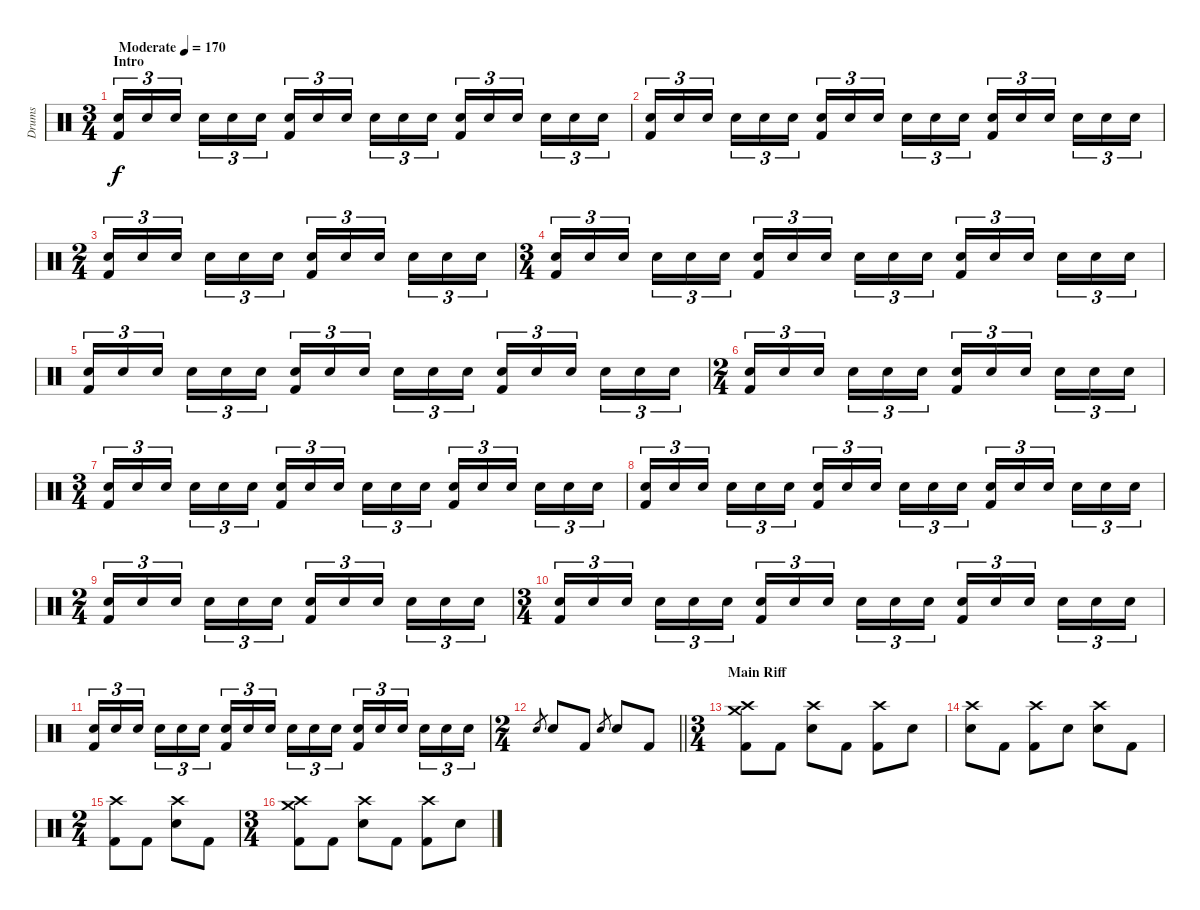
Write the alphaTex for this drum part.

\track ("Drums" "Drums") {instrument percussion}
\staff {score}
\articulation defaults
\ts (3 4)
\section ("" "Intro")
\tempo (170 "Moderate")
\clef neutral
\ks c
("Electric Snare (hit)" "Kick (hit) 2").16{tu (3 2) dy f volume 7} "Electric Snare (hit)".16{tu (3 2)} "Electric Snare (hit)".16{tu (3 2) beam splitsecondary} "Electric Snare (hit)".16{tu (3 2)} "Electric Snare (hit)".16{tu (3 2)} "Electric Snare (hit)".16{tu (3 2)} ("Electric Snare (hit)" "Kick (hit) 2").16{tu (3 2)} "Electric Snare (hit)".16{tu (3 2)} "Electric Snare (hit)".16{tu (3 2) beam splitsecondary} "Electric Snare (hit)".16{tu (3 2)} "Electric Snare (hit)".16{tu (3 2)} "Electric Snare (hit)".16{tu (3 2)} ("Electric Snare (hit)" "Kick (hit) 2").16{tu (3 2)} "Electric Snare (hit)".16{tu (3 2)} "Electric Snare (hit)".16{tu (3 2) beam splitsecondary} "Electric Snare (hit)".16{tu (3 2)} "Electric Snare (hit)".16{tu (3 2)} "Electric Snare (hit)".16{tu (3 2)} |
("Electric Snare (hit)" "Kick (hit) 2").16{tu (3 2)} "Electric Snare (hit)".16{tu (3 2)} "Electric Snare (hit)".16{tu (3 2) beam splitsecondary} "Electric Snare (hit)".16{tu (3 2)} "Electric Snare (hit)".16{tu (3 2)} "Electric Snare (hit)".16{tu (3 2)} ("Electric Snare (hit)" "Kick (hit) 2").16{tu (3 2)} "Electric Snare (hit)".16{tu (3 2)} "Electric Snare (hit)".16{tu (3 2) beam splitsecondary} "Electric Snare (hit)".16{tu (3 2)} "Electric Snare (hit)".16{tu (3 2)} "Electric Snare (hit)".16{tu (3 2)} ("Electric Snare (hit)" "Kick (hit) 2").16{tu (3 2)} "Electric Snare (hit)".16{tu (3 2)} "Electric Snare (hit)".16{tu (3 2) beam splitsecondary} "Electric Snare (hit)".16{tu (3 2)} "Electric Snare (hit)".16{tu (3 2)} "Electric Snare (hit)".16{tu (3 2)} |
\ts (2 4)
("Electric Snare (hit)" "Kick (hit) 2").16{tu (3 2)} "Electric Snare (hit)".16{tu (3 2)} "Electric Snare (hit)".16{tu (3 2) beam splitsecondary} "Electric Snare (hit)".16{tu (3 2)} "Electric Snare (hit)".16{tu (3 2)} "Electric Snare (hit)".16{tu (3 2)} ("Electric Snare (hit)" "Kick (hit) 2").16{tu (3 2)} "Electric Snare (hit)".16{tu (3 2)} "Electric Snare (hit)".16{tu (3 2) beam splitsecondary} "Electric Snare (hit)".16{tu (3 2)} "Electric Snare (hit)".16{tu (3 2)} "Electric Snare (hit)".16{tu (3 2)} |
\ts (3 4)
("Electric Snare (hit)" "Kick (hit) 2").16{tu (3 2)} "Electric Snare (hit)".16{tu (3 2)} "Electric Snare (hit)".16{tu (3 2) beam splitsecondary} "Electric Snare (hit)".16{tu (3 2)} "Electric Snare (hit)".16{tu (3 2)} "Electric Snare (hit)".16{tu (3 2)} ("Electric Snare (hit)" "Kick (hit) 2").16{tu (3 2)} "Electric Snare (hit)".16{tu (3 2)} "Electric Snare (hit)".16{tu (3 2) beam splitsecondary} "Electric Snare (hit)".16{tu (3 2)} "Electric Snare (hit)".16{tu (3 2)} "Electric Snare (hit)".16{tu (3 2)} ("Electric Snare (hit)" "Kick (hit) 2").16{tu (3 2)} "Electric Snare (hit)".16{tu (3 2)} "Electric Snare (hit)".16{tu (3 2) beam splitsecondary} "Electric Snare (hit)".16{tu (3 2)} "Electric Snare (hit)".16{tu (3 2)} "Electric Snare (hit)".16{tu (3 2)} |
("Electric Snare (hit)" "Kick (hit) 2").16{tu (3 2)} "Electric Snare (hit)".16{tu (3 2)} "Electric Snare (hit)".16{tu (3 2) beam splitsecondary} "Electric Snare (hit)".16{tu (3 2)} "Electric Snare (hit)".16{tu (3 2)} "Electric Snare (hit)".16{tu (3 2)} ("Electric Snare (hit)" "Kick (hit) 2").16{tu (3 2)} "Electric Snare (hit)".16{tu (3 2)} "Electric Snare (hit)".16{tu (3 2) beam splitsecondary} "Electric Snare (hit)".16{tu (3 2)} "Electric Snare (hit)".16{tu (3 2)} "Electric Snare (hit)".16{tu (3 2)} ("Electric Snare (hit)" "Kick (hit) 2").16{tu (3 2)} "Electric Snare (hit)".16{tu (3 2)} "Electric Snare (hit)".16{tu (3 2) beam splitsecondary} "Electric Snare (hit)".16{tu (3 2)} "Electric Snare (hit)".16{tu (3 2)} "Electric Snare (hit)".16{tu (3 2)} |
\ts (2 4)
("Electric Snare (hit)" "Kick (hit) 2").16{tu (3 2)} "Electric Snare (hit)".16{tu (3 2)} "Electric Snare (hit)".16{tu (3 2) beam splitsecondary} "Electric Snare (hit)".16{tu (3 2)} "Electric Snare (hit)".16{tu (3 2)} "Electric Snare (hit)".16{tu (3 2)} ("Electric Snare (hit)" "Kick (hit) 2").16{tu (3 2)} "Electric Snare (hit)".16{tu (3 2)} "Electric Snare (hit)".16{tu (3 2) beam splitsecondary} "Electric Snare (hit)".16{tu (3 2)} "Electric Snare (hit)".16{tu (3 2)} "Electric Snare (hit)".16{tu (3 2)} |
\ts (3 4)
("Electric Snare (hit)" "Kick (hit) 2").16{tu (3 2)} "Electric Snare (hit)".16{tu (3 2)} "Electric Snare (hit)".16{tu (3 2) beam splitsecondary} "Electric Snare (hit)".16{tu (3 2)} "Electric Snare (hit)".16{tu (3 2)} "Electric Snare (hit)".16{tu (3 2)} ("Electric Snare (hit)" "Kick (hit) 2").16{tu (3 2)} "Electric Snare (hit)".16{tu (3 2)} "Electric Snare (hit)".16{tu (3 2) beam splitsecondary} "Electric Snare (hit)".16{tu (3 2)} "Electric Snare (hit)".16{tu (3 2)} "Electric Snare (hit)".16{tu (3 2)} ("Electric Snare (hit)" "Kick (hit) 2").16{tu (3 2)} "Electric Snare (hit)".16{tu (3 2)} "Electric Snare (hit)".16{tu (3 2) beam splitsecondary} "Electric Snare (hit)".16{tu (3 2)} "Electric Snare (hit)".16{tu (3 2)} "Electric Snare (hit)".16{tu (3 2)} |
("Electric Snare (hit)" "Kick (hit) 2").16{tu (3 2)} "Electric Snare (hit)".16{tu (3 2)} "Electric Snare (hit)".16{tu (3 2) beam splitsecondary} "Electric Snare (hit)".16{tu (3 2)} "Electric Snare (hit)".16{tu (3 2)} "Electric Snare (hit)".16{tu (3 2)} ("Electric Snare (hit)" "Kick (hit) 2").16{tu (3 2)} "Electric Snare (hit)".16{tu (3 2)} "Electric Snare (hit)".16{tu (3 2) beam splitsecondary} "Electric Snare (hit)".16{tu (3 2)} "Electric Snare (hit)".16{tu (3 2)} "Electric Snare (hit)".16{tu (3 2)} ("Electric Snare (hit)" "Kick (hit) 2").16{tu (3 2)} "Electric Snare (hit)".16{tu (3 2)} "Electric Snare (hit)".16{tu (3 2) beam splitsecondary} "Electric Snare (hit)".16{tu (3 2)} "Electric Snare (hit)".16{tu (3 2)} "Electric Snare (hit)".16{tu (3 2)} |
\ts (2 4)
("Electric Snare (hit)" "Kick (hit) 2").16{tu (3 2)} "Electric Snare (hit)".16{tu (3 2)} "Electric Snare (hit)".16{tu (3 2) beam splitsecondary} "Electric Snare (hit)".16{tu (3 2)} "Electric Snare (hit)".16{tu (3 2)} "Electric Snare (hit)".16{tu (3 2)} ("Electric Snare (hit)" "Kick (hit) 2").16{tu (3 2)} "Electric Snare (hit)".16{tu (3 2)} "Electric Snare (hit)".16{tu (3 2) beam splitsecondary} "Electric Snare (hit)".16{tu (3 2)} "Electric Snare (hit)".16{tu (3 2)} "Electric Snare (hit)".16{tu (3 2)} |
\ts (3 4)
("Electric Snare (hit)" "Kick (hit) 2").16{tu (3 2)} "Electric Snare (hit)".16{tu (3 2)} "Electric Snare (hit)".16{tu (3 2) beam splitsecondary} "Electric Snare (hit)".16{tu (3 2)} "Electric Snare (hit)".16{tu (3 2)} "Electric Snare (hit)".16{tu (3 2)} ("Electric Snare (hit)" "Kick (hit) 2").16{tu (3 2)} "Electric Snare (hit)".16{tu (3 2)} "Electric Snare (hit)".16{tu (3 2) beam splitsecondary} "Electric Snare (hit)".16{tu (3 2)} "Electric Snare (hit)".16{tu (3 2)} "Electric Snare (hit)".16{tu (3 2)} ("Electric Snare (hit)" "Kick (hit) 2").16{tu (3 2)} "Electric Snare (hit)".16{tu (3 2)} "Electric Snare (hit)".16{tu (3 2) beam splitsecondary} "Electric Snare (hit)".16{tu (3 2)} "Electric Snare (hit)".16{tu (3 2)} "Electric Snare (hit)".16{tu (3 2)} |
("Electric Snare (hit)" "Kick (hit) 2").16{tu (3 2)} "Electric Snare (hit)".16{tu (3 2)} "Electric Snare (hit)".16{tu (3 2) beam splitsecondary} "Electric Snare (hit)".16{tu (3 2)} "Electric Snare (hit)".16{tu (3 2)} "Electric Snare (hit)".16{tu (3 2)} ("Electric Snare (hit)" "Kick (hit) 2").16{tu (3 2)} "Electric Snare (hit)".16{tu (3 2)} "Electric Snare (hit)".16{tu (3 2) beam splitsecondary} "Electric Snare (hit)".16{tu (3 2)} "Electric Snare (hit)".16{tu (3 2)} "Electric Snare (hit)".16{tu (3 2)} ("Electric Snare (hit)" "Kick (hit) 2").16{tu (3 2)} "Electric Snare (hit)".16{tu (3 2)} "Electric Snare (hit)".16{tu (3 2) beam splitsecondary} "Electric Snare (hit)".16{tu (3 2)} "Electric Snare (hit)".16{tu (3 2)} "Electric Snare (hit)".16{tu (3 2)} |
\ts (2 4)
\barLineRight lightlight "Electric Snare (hit)".8{gr} "Electric Snare (hit)".8{volume 12} "Kick (hit) 2".8 "Electric Snare (hit)".8{gr} "Electric Snare (hit)".8 "Kick (hit) 2".8
|
\ts (3 4)
\section ("" "Main Riff")
("Crash medium (hit)" "Crash high (hit)" "Kick (hit) 2").8 "Kick (hit) 2".8 ("Crash high (hit)" "Electric Snare (hit)").8 "Kick (hit) 2".8 ("Crash high (hit)" "Kick (hit) 2").8 "Electric Snare (hit)".8 |
("Crash high (hit)" "Electric Snare (hit)").8 "Kick (hit) 2".8 ("Crash high (hit)" "Kick (hit) 2").8 "Electric Snare (hit)".8 ("Crash high (hit)" "Electric Snare (hit)").8 "Kick (hit) 2".8 |
\ts (2 4)
("Crash high (hit)" "Kick (hit) 2").8 "Kick (hit) 2".8 ("Crash high (hit)" "Electric Snare (hit)").8 "Kick (hit) 2".8 |
\ts (3 4)
("Crash medium (hit)" "Crash high (hit)" "Kick (hit) 2").8 "Kick (hit) 2".8 ("Crash high (hit)" "Electric Snare (hit)").8 "Kick (hit) 2".8 ("Crash high (hit)" "Kick (hit) 2").8 "Electric Snare (hit)".8
